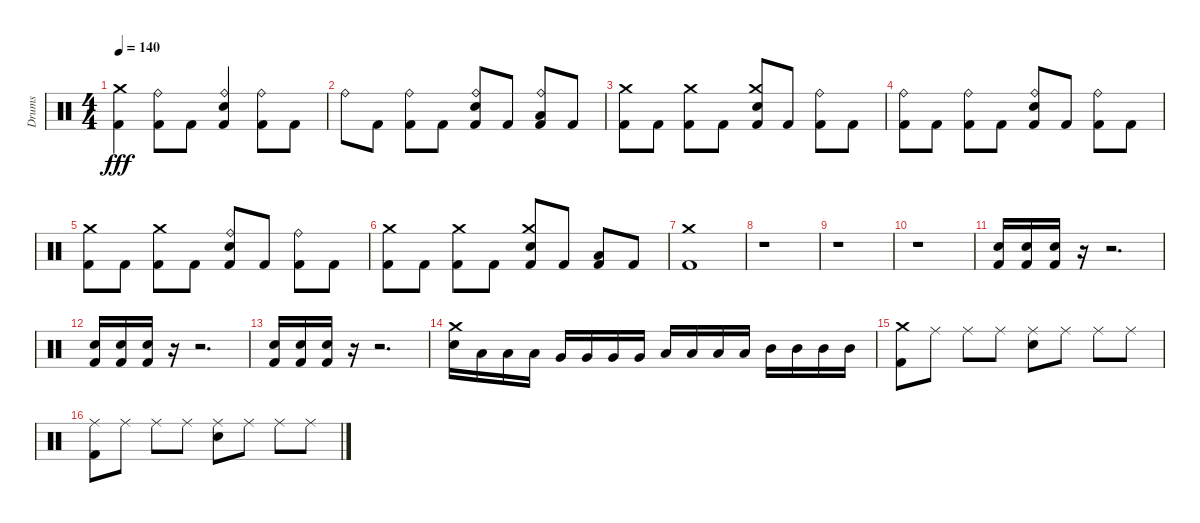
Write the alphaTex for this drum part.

\track ("Drums" "Drums") {instrument percussion}
\staff {score}
\articulation defaults
\ts (4 4)
\tempo 140
\clef neutral
\ks c
("Kick (hit) 2" "Crash medium (hit)").4{dy fff} ("Kick (hit) 2" "Ride (bell)").8 "Kick (hit) 2".8 ("Kick (hit) 2" "Electric Snare (hit)" "Ride (bell)").4 ("Kick (hit) 2" "Ride (bell)").8 "Kick (hit) 2".8 |
"Ride (bell)".8 "Kick (hit) 2".8 ("Kick (hit) 2" "Ride (bell)").8 "Kick (hit) 2".8 ("Kick (hit) 2" "Electric Snare (hit)" "Ride (bell)").8 "Kick (hit) 2".8 ("Kick (hit) 2" "Low Floor Tom (hit)" "Ride (bell)").8 "Kick (hit) 2".8 |
("Kick (hit) 2" "Crash medium (hit)").8 "Kick (hit) 2".8 ("Kick (hit) 2" "Crash medium (hit)").8 "Kick (hit) 2".8 ("Kick (hit) 2" "Electric Snare (hit)" "Crash medium (hit)").8 "Kick (hit) 2".8 ("Kick (hit) 2" "Ride (bell)").8 "Kick (hit) 2".8 |
("Kick (hit) 2" "Ride (bell)").8 "Kick (hit) 2".8 ("Kick (hit) 2" "Ride (bell)").8 "Kick (hit) 2".8 ("Kick (hit) 2" "Electric Snare (hit)" "Ride (bell)").8 "Kick (hit) 2".8 ("Kick (hit) 2" "Ride (bell)").8 "Kick (hit) 2".8 |
("Kick (hit) 2" "Crash medium (hit)").8 "Kick (hit) 2".8 ("Kick (hit) 2" "Crash medium (hit)").8 "Kick (hit) 2".8 ("Kick (hit) 2" "Electric Snare (hit)" "Ride (bell)").8 "Kick (hit) 2".8 ("Kick (hit) 2" "Ride (bell)").8 "Kick (hit) 2".8 |
("Kick (hit) 2" "Crash medium (hit)").8 "Kick (hit) 2".8 ("Kick (hit) 2" "Crash medium (hit)").8 "Kick (hit) 2".8 ("Kick (hit) 2" "Electric Snare (hit)" "Crash medium (hit)").8 "Kick (hit) 2".8 ("Kick (hit) 2" "Low Floor Tom (hit)").8 "Kick (hit) 2".8 |
("Kick (hit) 2" "Crash medium (hit)").1 |
r.1 |
r.1 |
r.1 |
("Kick (hit) 2" "Electric Snare (hit)").16 ("Kick (hit) 2" "Electric Snare (hit)").16 ("Kick (hit) 2" "Electric Snare (hit)").16 r.16 r.2{d} |
("Kick (hit) 2" "Electric Snare (hit)").16 ("Kick (hit) 2" "Electric Snare (hit)").16 ("Kick (hit) 2" "Electric Snare (hit)").16 r.16 r.2{d} |
("Kick (hit) 2" "Electric Snare (hit)").16 ("Kick (hit) 2" "Electric Snare (hit)").16 ("Kick (hit) 2" "Electric Snare (hit)").16 r.16 r.2{d} |
("Electric Snare (hit)" "Crash medium (hit)").16 "Low Floor Tom (hit)".16 "Low Floor Tom (hit)".16 "Low Floor Tom (hit)".16 "Very Low Tom (hit)".16 "Very Low Tom (hit)".16 "Very Low Tom (hit)".16 "Very Low Tom (hit)".16 "Low Tom (hit)".16 "Low Tom (hit)".16 "Low Tom (hit)".16 "Low Tom (hit)".16 "Mid Tom (hit)".16 "Mid Tom (hit)".16 "Mid Tom (hit)".16 "Mid Tom (hit)".16 |
("Kick (hit) 2" "Crash medium (hit)").8 "Ride (middle)".8 "Ride (middle)".8 "Ride (middle)".8 ("Electric Snare (hit)" "Ride (middle)").8 "Ride (middle)".8 "Ride (middle)".8 "Ride (middle)".8 |
("Kick (hit) 2" "Ride (middle)").8 "Ride (middle)".8 "Ride (middle)".8 "Ride (middle)".8 ("Electric Snare (hit)" "Ride (middle)").8 "Ride (middle)".8 "Ride (middle)".8 "Ride (middle)".8
